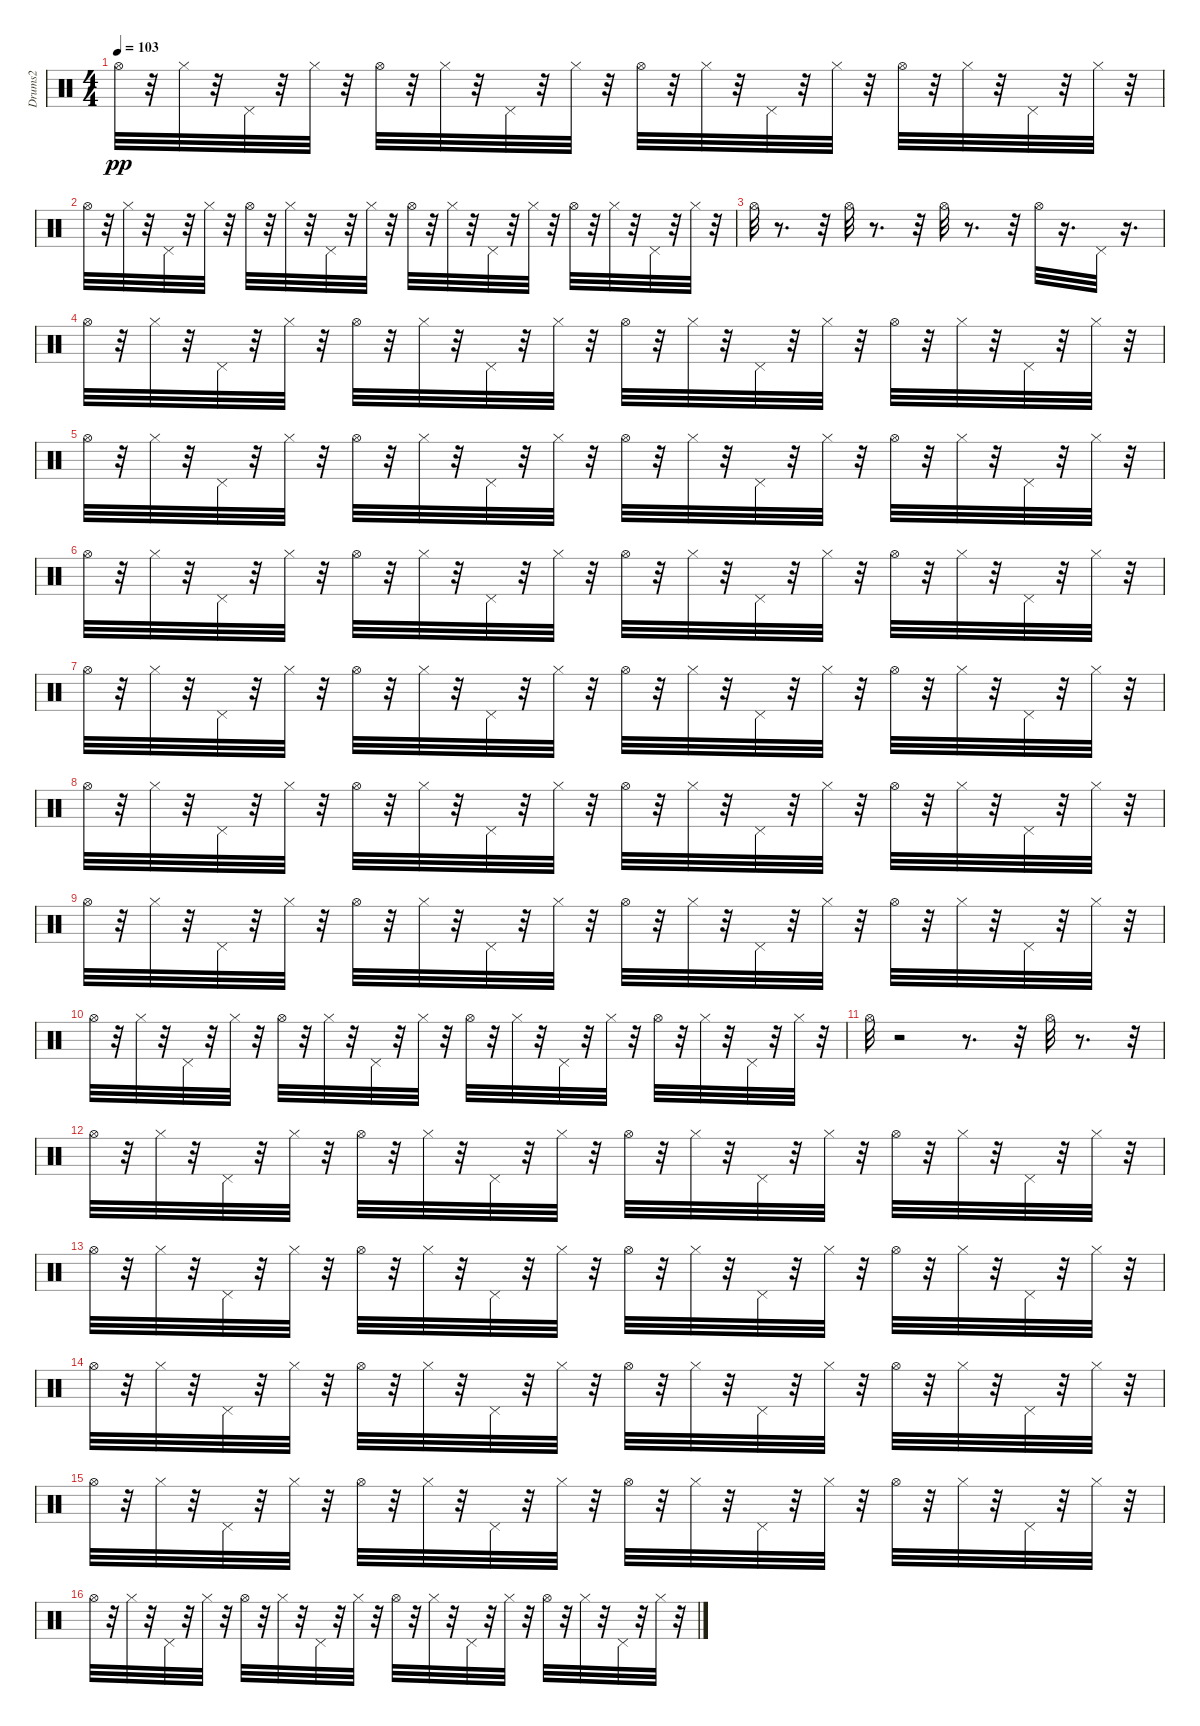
\track ("Drums2" "Drums2") {instrument percussion}
\staff {score}
\articulation defaults
\ts (4 4)
\tempo 103
\clef neutral
\ks c "Hi-Hat (open)".32{dy pp}
r.32 "Hi-Hat (closed)".32 r.32 "Pedal Hi-Hat (hit)".32 r.32 "Hi-Hat (closed)".32 r.32 "Hi-Hat (open)".32 r.32 "Hi-Hat (closed)".32 r.32 "Pedal Hi-Hat (hit)".32 r.32 "Hi-Hat (closed)".32 r.32 "Hi-Hat (open)".32 r.32 "Hi-Hat (closed)".32 r.32 "Pedal Hi-Hat (hit)".32 r.32 "Hi-Hat (closed)".32 r.32 "Hi-Hat (open)".32 r.32 "Hi-Hat (closed)".32 r.32 "Pedal Hi-Hat (hit)".32 r.32 "Hi-Hat (closed)".32 r.32 |
"Hi-Hat (open)".32 r.32 "Hi-Hat (closed)".32 r.32 "Pedal Hi-Hat (hit)".32 r.32 "Hi-Hat (closed)".32 r.32 "Hi-Hat (open)".32 r.32 "Hi-Hat (closed)".32 r.32 "Pedal Hi-Hat (hit)".32 r.32 "Hi-Hat (closed)".32 r.32 "Hi-Hat (open)".32 r.32 "Hi-Hat (closed)".32 r.32 "Pedal Hi-Hat (hit)".32 r.32 "Hi-Hat (closed)".32 r.32 "Hi-Hat (open)".32 r.32 "Hi-Hat (closed)".32 r.32 "Pedal Hi-Hat (hit)".32 r.32 "Hi-Hat (closed)".32 r.32 |
"Hi-Hat (open)".32 r.8{d} r.32 "Hi-Hat (open)".32 r.8{d} r.32 "Hi-Hat (open)".32 r.8{d} r.32 "Hi-Hat (open)".32 r.16{d} "Pedal Hi-Hat (hit)".32 r.16{d} |
"Hi-Hat (open)".32 r.32 "Hi-Hat (closed)".32 r.32 "Pedal Hi-Hat (hit)".32 r.32 "Hi-Hat (closed)".32 r.32 "Hi-Hat (open)".32 r.32 "Hi-Hat (closed)".32 r.32 "Pedal Hi-Hat (hit)".32 r.32 "Hi-Hat (closed)".32 r.32 "Hi-Hat (open)".32 r.32 "Hi-Hat (closed)".32 r.32 "Pedal Hi-Hat (hit)".32 r.32 "Hi-Hat (closed)".32 r.32 "Hi-Hat (open)".32 r.32 "Hi-Hat (closed)".32 r.32 "Pedal Hi-Hat (hit)".32 r.32 "Hi-Hat (closed)".32 r.32 |
"Hi-Hat (open)".32 r.32 "Hi-Hat (closed)".32 r.32 "Pedal Hi-Hat (hit)".32 r.32 "Hi-Hat (closed)".32 r.32 "Hi-Hat (open)".32 r.32 "Hi-Hat (closed)".32 r.32 "Pedal Hi-Hat (hit)".32 r.32 "Hi-Hat (closed)".32 r.32 "Hi-Hat (open)".32 r.32 "Hi-Hat (closed)".32 r.32 "Pedal Hi-Hat (hit)".32 r.32 "Hi-Hat (closed)".32 r.32 "Hi-Hat (open)".32 r.32 "Hi-Hat (closed)".32 r.32 "Pedal Hi-Hat (hit)".32 r.32 "Hi-Hat (closed)".32 r.32 |
"Hi-Hat (open)".32 r.32 "Hi-Hat (closed)".32 r.32 "Pedal Hi-Hat (hit)".32 r.32 "Hi-Hat (closed)".32 r.32 "Hi-Hat (open)".32 r.32 "Hi-Hat (closed)".32 r.32 "Pedal Hi-Hat (hit)".32 r.32 "Hi-Hat (closed)".32 r.32 "Hi-Hat (open)".32 r.32 "Hi-Hat (closed)".32 r.32 "Pedal Hi-Hat (hit)".32 r.32 "Hi-Hat (closed)".32 r.32 "Hi-Hat (open)".32 r.32 "Hi-Hat (closed)".32 r.32 "Pedal Hi-Hat (hit)".32 r.32 "Hi-Hat (closed)".32 r.32 |
"Hi-Hat (open)".32 r.32 "Hi-Hat (closed)".32 r.32 "Pedal Hi-Hat (hit)".32 r.32 "Hi-Hat (closed)".32 r.32 "Hi-Hat (open)".32 r.32 "Hi-Hat (closed)".32 r.32 "Pedal Hi-Hat (hit)".32 r.32 "Hi-Hat (closed)".32 r.32 "Hi-Hat (open)".32 r.32 "Hi-Hat (closed)".32 r.32 "Pedal Hi-Hat (hit)".32 r.32 "Hi-Hat (closed)".32 r.32 "Hi-Hat (open)".32 r.32 "Hi-Hat (closed)".32 r.32 "Pedal Hi-Hat (hit)".32 r.32 "Hi-Hat (closed)".32 r.32 |
"Hi-Hat (open)".32 r.32 "Hi-Hat (closed)".32 r.32 "Pedal Hi-Hat (hit)".32 r.32 "Hi-Hat (closed)".32 r.32 "Hi-Hat (open)".32 r.32 "Hi-Hat (closed)".32 r.32 "Pedal Hi-Hat (hit)".32 r.32 "Hi-Hat (closed)".32 r.32 "Hi-Hat (open)".32 r.32 "Hi-Hat (closed)".32 r.32 "Pedal Hi-Hat (hit)".32 r.32 "Hi-Hat (closed)".32 r.32 "Hi-Hat (open)".32 r.32 "Hi-Hat (closed)".32 r.32 "Pedal Hi-Hat (hit)".32 r.32 "Hi-Hat (closed)".32 r.32 |
"Hi-Hat (open)".32 r.32 "Hi-Hat (closed)".32 r.32 "Pedal Hi-Hat (hit)".32 r.32 "Hi-Hat (closed)".32 r.32 "Hi-Hat (open)".32 r.32 "Hi-Hat (closed)".32 r.32 "Pedal Hi-Hat (hit)".32 r.32 "Hi-Hat (closed)".32 r.32 "Hi-Hat (open)".32 r.32 "Hi-Hat (closed)".32 r.32 "Pedal Hi-Hat (hit)".32 r.32 "Hi-Hat (closed)".32 r.32 "Hi-Hat (open)".32 r.32 "Hi-Hat (closed)".32 r.32 "Pedal Hi-Hat (hit)".32 r.32 "Hi-Hat (closed)".32 r.32 |
"Hi-Hat (open)".32 r.32 "Hi-Hat (closed)".32 r.32 "Pedal Hi-Hat (hit)".32 r.32 "Hi-Hat (closed)".32 r.32 "Hi-Hat (open)".32 r.32 "Hi-Hat (closed)".32 r.32 "Pedal Hi-Hat (hit)".32 r.32 "Hi-Hat (closed)".32 r.32 "Hi-Hat (open)".32 r.32 "Hi-Hat (closed)".32 r.32 "Pedal Hi-Hat (hit)".32 r.32 "Hi-Hat (closed)".32 r.32 "Hi-Hat (open)".32 r.32 "Hi-Hat (closed)".32 r.32 "Pedal Hi-Hat (hit)".32 r.32 "Hi-Hat (closed)".32 r.32 |
"Hi-Hat (open)".32 r.2 r.8{d} r.32 "Hi-Hat (open)".32 r.8{d} r.32 |
"Hi-Hat (open)".32 r.32 "Hi-Hat (closed)".32 r.32 "Pedal Hi-Hat (hit)".32 r.32 "Hi-Hat (closed)".32 r.32 "Hi-Hat (open)".32 r.32 "Hi-Hat (closed)".32 r.32 "Pedal Hi-Hat (hit)".32 r.32 "Hi-Hat (closed)".32 r.32 "Hi-Hat (open)".32 r.32 "Hi-Hat (closed)".32 r.32 "Pedal Hi-Hat (hit)".32 r.32 "Hi-Hat (closed)".32 r.32 "Hi-Hat (open)".32 r.32 "Hi-Hat (closed)".32 r.32 "Pedal Hi-Hat (hit)".32 r.32 "Hi-Hat (closed)".32 r.32 |
"Hi-Hat (open)".32 r.32 "Hi-Hat (closed)".32 r.32 "Pedal Hi-Hat (hit)".32 r.32 "Hi-Hat (closed)".32 r.32 "Hi-Hat (open)".32 r.32 "Hi-Hat (closed)".32 r.32 "Pedal Hi-Hat (hit)".32 r.32 "Hi-Hat (closed)".32 r.32 "Hi-Hat (open)".32 r.32 "Hi-Hat (closed)".32 r.32 "Pedal Hi-Hat (hit)".32 r.32 "Hi-Hat (closed)".32 r.32 "Hi-Hat (open)".32 r.32 "Hi-Hat (closed)".32 r.32 "Pedal Hi-Hat (hit)".32 r.32 "Hi-Hat (closed)".32 r.32 |
"Hi-Hat (open)".32 r.32 "Hi-Hat (closed)".32 r.32 "Pedal Hi-Hat (hit)".32 r.32 "Hi-Hat (closed)".32 r.32 "Hi-Hat (open)".32 r.32 "Hi-Hat (closed)".32 r.32 "Pedal Hi-Hat (hit)".32 r.32 "Hi-Hat (closed)".32 r.32 "Hi-Hat (open)".32 r.32 "Hi-Hat (closed)".32 r.32 "Pedal Hi-Hat (hit)".32 r.32 "Hi-Hat (closed)".32 r.32 "Hi-Hat (open)".32 r.32 "Hi-Hat (closed)".32 r.32 "Pedal Hi-Hat (hit)".32 r.32 "Hi-Hat (closed)".32 r.32 |
"Hi-Hat (open)".32 r.32 "Hi-Hat (closed)".32 r.32 "Pedal Hi-Hat (hit)".32 r.32 "Hi-Hat (closed)".32 r.32 "Hi-Hat (open)".32 r.32 "Hi-Hat (closed)".32 r.32 "Pedal Hi-Hat (hit)".32 r.32 "Hi-Hat (closed)".32 r.32 "Hi-Hat (open)".32 r.32 "Hi-Hat (closed)".32 r.32 "Pedal Hi-Hat (hit)".32 r.32 "Hi-Hat (closed)".32 r.32 "Hi-Hat (open)".32 r.32 "Hi-Hat (closed)".32 r.32 "Pedal Hi-Hat (hit)".32 r.32 "Hi-Hat (closed)".32 r.32 |
"Hi-Hat (open)".32 r.32 "Hi-Hat (closed)".32 r.32 "Pedal Hi-Hat (hit)".32 r.32 "Hi-Hat (closed)".32 r.32 "Hi-Hat (open)".32 r.32 "Hi-Hat (closed)".32 r.32 "Pedal Hi-Hat (hit)".32 r.32 "Hi-Hat (closed)".32 r.32 "Hi-Hat (open)".32 r.32 "Hi-Hat (closed)".32 r.32 "Pedal Hi-Hat (hit)".32 r.32 "Hi-Hat (closed)".32 r.32 "Hi-Hat (open)".32 r.32 "Hi-Hat (closed)".32 r.32 "Pedal Hi-Hat (hit)".32 r.32 "Hi-Hat (closed)".32 r.32
